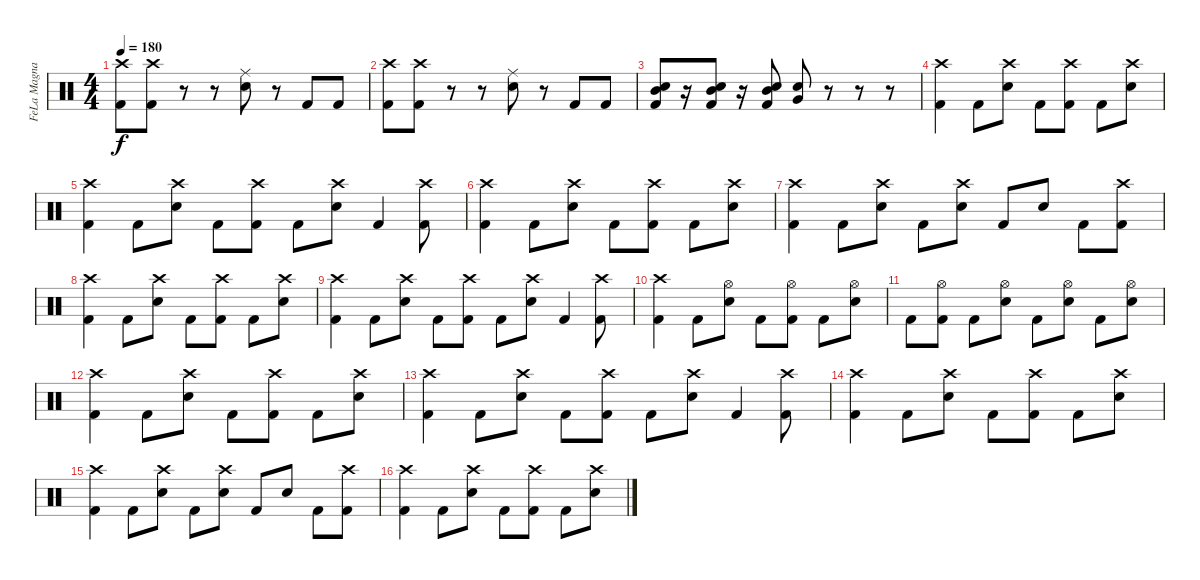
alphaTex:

\track ("FeLa Magnani" "FeLa Magna") {instrument percussion}
\staff {score}
\articulation defaults
\ts (4 4)
\tempo 180
\clef neutral
\ks c
("Crash high (hit)" "Kick (hit) 2").8{dy f} ("Crash high (hit)" "Kick (hit) 2").8 r.8 r.8 ("Ride (middle)" "Electric Snare (hit)").8 r.8 "Kick (hit) 2".8 "Kick (hit) 2".8 |
("Crash high (hit)" "Kick (hit) 2").8 ("Crash high (hit)" "Kick (hit) 2").8 r.8 r.8 ("Ride (middle)" "Electric Snare (hit)").8 r.8 "Kick (hit) 2".8 "Kick (hit) 2".8 |
("Mid Tom (hit)" "Kick (hit) 2" "Electric Snare (hit)").8 r.16 ("Mid Tom (hit)" "Kick (hit) 2" "Electric Snare (hit)").8 r.16 ("Mid Tom (hit)" "Kick (hit) 2" "Electric Snare (hit)").8 ("Electric Snare (hit)" "Very Low Tom (hit)").8 r.8 r.8 r.8 |
("Crash high (hit)" "Kick (hit) 2").4 "Kick (hit) 2".8 ("Crash high (hit)" "Electric Snare (hit)").8 "Kick (hit) 2".8 ("Crash high (hit)" "Kick (hit) 2").8 "Kick (hit) 2".8 ("Crash high (hit)" "Electric Snare (hit)").8 |
("Crash high (hit)" "Kick (hit) 2").4 "Kick (hit) 2".8 ("Crash high (hit)" "Electric Snare (hit)").8 "Kick (hit) 2".8 ("Crash high (hit)" "Kick (hit) 2").8 "Kick (hit) 2".8 ("Crash high (hit)" "Electric Snare (hit)").8 "Kick (hit) 2".4 ("Crash high (hit)" "Kick (hit) 2").8 |
("Crash high (hit)" "Kick (hit) 2").4 "Kick (hit) 2".8 ("Crash high (hit)" "Electric Snare (hit)").8 "Kick (hit) 2".8 ("Crash high (hit)" "Kick (hit) 2").8 "Kick (hit) 2".8 ("Crash high (hit)" "Electric Snare (hit)").8 |
("Crash high (hit)" "Kick (hit) 2").4 "Kick (hit) 2".8 ("Crash high (hit)" "Electric Snare (hit)").8 "Kick (hit) 2".8 ("Crash high (hit)" "Electric Snare (hit)").8 "Kick (hit) 2".8 "Electric Snare (hit)".8 "Kick (hit) 2".8 ("Crash high (hit)" "Kick (hit) 2").8 |
("Crash high (hit)" "Kick (hit) 2").4 "Kick (hit) 2".8 ("Crash high (hit)" "Electric Snare (hit)").8 "Kick (hit) 2".8 ("Crash high (hit)" "Kick (hit) 2").8 "Kick (hit) 2".8 ("Crash high (hit)" "Electric Snare (hit)").8 |
("Crash high (hit)" "Kick (hit) 2").4 "Kick (hit) 2".8 ("Crash high (hit)" "Electric Snare (hit)").8 "Kick (hit) 2".8 ("Crash high (hit)" "Kick (hit) 2").8 "Kick (hit) 2".8 ("Crash high (hit)" "Electric Snare (hit)").8 "Kick (hit) 2".4 ("Crash high (hit)" "Kick (hit) 2").8 |
("Crash high (hit)" "Kick (hit) 2").4 "Kick (hit) 2".8 ("Hi-Hat (open)" "Electric Snare (hit)").8 "Kick (hit) 2".8 ("Hi-Hat (open)" "Kick (hit) 2").8 "Kick (hit) 2".8 ("Hi-Hat (open)" "Electric Snare (hit)").8 |
"Kick (hit) 2".8 ("Hi-Hat (open)" "Kick (hit) 2").8 "Kick (hit) 2".8 ("Hi-Hat (open)" "Electric Snare (hit)").8 "Kick (hit) 2".8 ("Hi-Hat (open)" "Electric Snare (hit)").8 "Kick (hit) 2".8 ("Hi-Hat (open)" "Electric Snare (hit)").8 |
("Crash high (hit)" "Kick (hit) 2").4 "Kick (hit) 2".8 ("Crash high (hit)" "Electric Snare (hit)").8 "Kick (hit) 2".8 ("Crash high (hit)" "Kick (hit) 2").8 "Kick (hit) 2".8 ("Crash high (hit)" "Electric Snare (hit)").8 |
("Crash high (hit)" "Kick (hit) 2").4 "Kick (hit) 2".8 ("Crash high (hit)" "Electric Snare (hit)").8 "Kick (hit) 2".8 ("Crash high (hit)" "Kick (hit) 2").8 "Kick (hit) 2".8 ("Crash high (hit)" "Electric Snare (hit)").8 "Kick (hit) 2".4 ("Crash high (hit)" "Kick (hit) 2").8 |
("Crash high (hit)" "Kick (hit) 2").4 "Kick (hit) 2".8 ("Crash high (hit)" "Electric Snare (hit)").8 "Kick (hit) 2".8 ("Crash high (hit)" "Kick (hit) 2").8 "Kick (hit) 2".8 ("Crash high (hit)" "Electric Snare (hit)").8 |
("Crash high (hit)" "Kick (hit) 2").4 "Kick (hit) 2".8 ("Crash high (hit)" "Electric Snare (hit)").8 "Kick (hit) 2".8 ("Crash high (hit)" "Electric Snare (hit)").8 "Kick (hit) 2".8 "Electric Snare (hit)".8 "Kick (hit) 2".8 ("Crash high (hit)" "Kick (hit) 2").8 |
("Crash high (hit)" "Kick (hit) 2").4 "Kick (hit) 2".8 ("Crash high (hit)" "Electric Snare (hit)").8 "Kick (hit) 2".8 ("Crash high (hit)" "Kick (hit) 2").8 "Kick (hit) 2".8 ("Crash high (hit)" "Electric Snare (hit)").8
